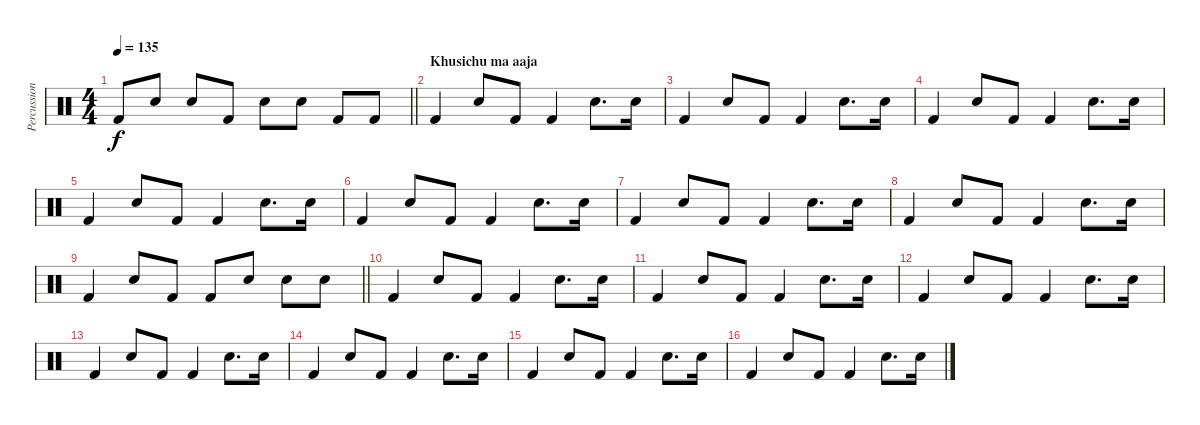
\track ("Percussion" "Percussion") {instrument percussion}
\staff {score}
\articulation defaults
\ts (4 4)
\tempo 135
\clef neutral
\barLineRight lightlight
\ks c "Kick (hit) 2".8{dy f} "Electric Snare (hit)".8 "Electric Snare (hit)".8 "Kick (hit) 2".8 "Electric Snare (hit)".8 "Electric Snare (hit)".8 "Kick (hit) 2".8 "Kick (hit) 2".8
|
\section ("" "Khusichu ma aaja")
"Kick (hit) 2".4 "Electric Snare (hit)".8 "Kick (hit) 2".8 "Kick (hit) 2".4 "Electric Snare (hit)".8{d} "Snare (hit)".16 |
"Kick (hit) 2".4 "Electric Snare (hit)".8 "Kick (hit) 2".8 "Kick (hit) 2".4 "Electric Snare (hit)".8{d} "Snare (hit)".16 |
"Kick (hit) 2".4 "Electric Snare (hit)".8 "Kick (hit) 2".8 "Kick (hit) 2".4 "Electric Snare (hit)".8{d} "Snare (hit)".16 |
"Kick (hit) 2".4 "Electric Snare (hit)".8 "Kick (hit) 2".8 "Kick (hit) 2".4 "Electric Snare (hit)".8{d} "Snare (hit)".16 |
"Kick (hit) 2".4 "Electric Snare (hit)".8 "Kick (hit) 2".8 "Kick (hit) 2".4 "Electric Snare (hit)".8{d} "Snare (hit)".16 |
"Kick (hit) 2".4 "Electric Snare (hit)".8 "Kick (hit) 2".8 "Kick (hit) 2".4 "Electric Snare (hit)".8{d} "Snare (hit)".16 |
"Kick (hit) 2".4 "Electric Snare (hit)".8 "Kick (hit) 2".8 "Kick (hit) 2".4 "Electric Snare (hit)".8{d} "Snare (hit)".16 |
\barLineRight lightlight "Kick (hit) 2".4 "Electric Snare (hit)".8 "Kick (hit) 2".8 "Kick (hit) 2".8 "Electric Snare (hit)".8 "Electric Snare (hit)".8 "Electric Snare (hit)".8
|
"Kick (hit) 2".4 "Electric Snare (hit)".8 "Kick (hit) 2".8 "Kick (hit) 2".4 "Electric Snare (hit)".8{d} "Snare (hit)".16 |
"Kick (hit) 2".4 "Electric Snare (hit)".8 "Kick (hit) 2".8 "Kick (hit) 2".4 "Electric Snare (hit)".8{d} "Snare (hit)".16 |
"Kick (hit) 2".4 "Electric Snare (hit)".8 "Kick (hit) 2".8 "Kick (hit) 2".4 "Electric Snare (hit)".8{d} "Snare (hit)".16 |
"Kick (hit) 2".4 "Electric Snare (hit)".8 "Kick (hit) 2".8 "Kick (hit) 2".4 "Electric Snare (hit)".8{d} "Snare (hit)".16 |
"Kick (hit) 2".4 "Electric Snare (hit)".8 "Kick (hit) 2".8 "Kick (hit) 2".4 "Electric Snare (hit)".8{d} "Snare (hit)".16 |
"Kick (hit) 2".4 "Electric Snare (hit)".8 "Kick (hit) 2".8 "Kick (hit) 2".4 "Electric Snare (hit)".8{d} "Snare (hit)".16 |
"Kick (hit) 2".4 "Electric Snare (hit)".8 "Kick (hit) 2".8 "Kick (hit) 2".4 "Electric Snare (hit)".8{d} "Snare (hit)".16
